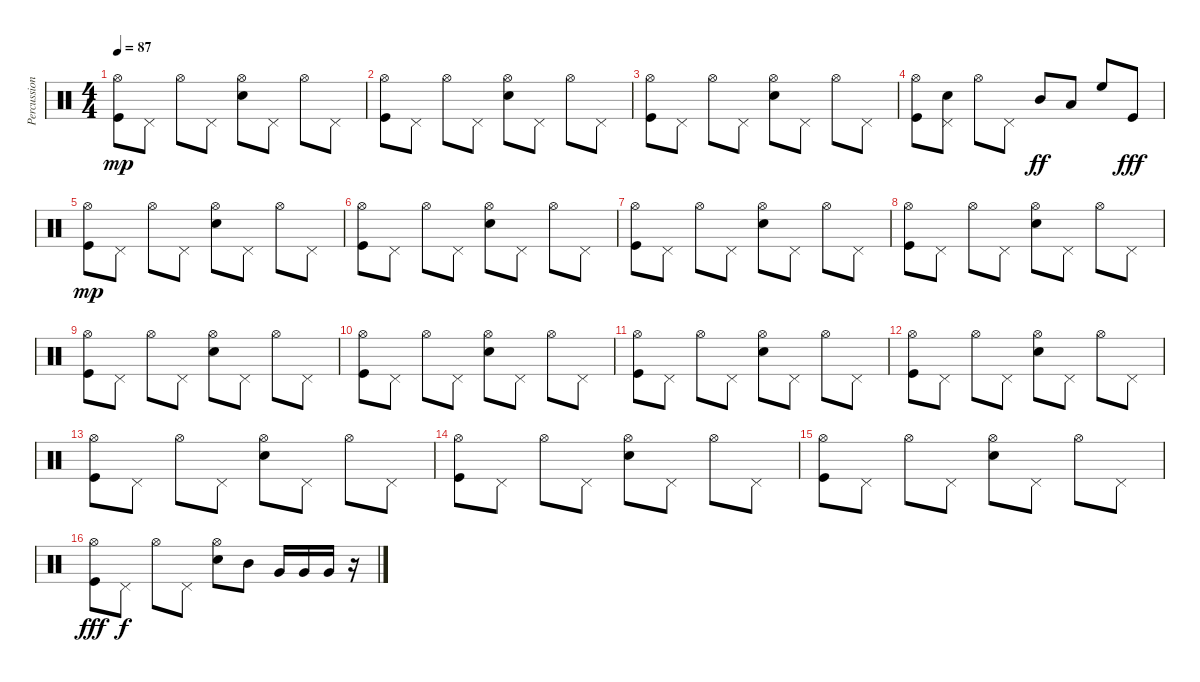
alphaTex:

\track ("Percussion" "Percussion") {instrument percussion}
\staff {score}
\articulation defaults
\ts (4 4)
\tempo 87
\clef neutral
\ks c
("Kick (hit)" "Hi-Hat (open)").8{dy mp} "Pedal Hi-Hat (hit)".8 "Hi-Hat (open)".8 "Pedal Hi-Hat (hit)".8 ("Snare (hit) 2" "Hi-Hat (open)").8 "Pedal Hi-Hat (hit)".8 "Hi-Hat (open)".8 "Pedal Hi-Hat (hit)".8 |
("Kick (hit)" "Hi-Hat (open)").8 "Pedal Hi-Hat (hit)".8 "Hi-Hat (open)".8 "Pedal Hi-Hat (hit)".8 ("Snare (hit) 2" "Hi-Hat (open)").8 "Pedal Hi-Hat (hit)".8 "Hi-Hat (open)".8 "Pedal Hi-Hat (hit)".8 |
("Kick (hit)" "Hi-Hat (open)").8 "Pedal Hi-Hat (hit)".8 "Hi-Hat (open)".8 "Pedal Hi-Hat (hit)".8 ("Snare (hit) 2" "Hi-Hat (open)").8 "Pedal Hi-Hat (hit)".8 "Hi-Hat (open)".8 "Pedal Hi-Hat (hit)".8 |
("Kick (hit)" "Hi-Hat (open)").8 ("Electric Snare (hit)" "Pedal Hi-Hat (hit)").8 "Hi-Hat (open)".8 "Pedal Hi-Hat (hit)".8 "Mid Tom (hit)".8{dy ff} "Low Tom (hit)".8 "High Floor Tom (hit)".8 "Kick (hit)".8{dy fff} |
("Kick (hit)" "Hi-Hat (open)").8{dy mp} "Pedal Hi-Hat (hit)".8 "Hi-Hat (open)".8 "Pedal Hi-Hat (hit)".8 ("Snare (hit) 2" "Hi-Hat (open)").8 "Pedal Hi-Hat (hit)".8 "Hi-Hat (open)".8 "Pedal Hi-Hat (hit)".8 |
("Kick (hit)" "Hi-Hat (open)").8 "Pedal Hi-Hat (hit)".8 "Hi-Hat (open)".8 "Pedal Hi-Hat (hit)".8 ("Snare (hit) 2" "Hi-Hat (open)").8 "Pedal Hi-Hat (hit)".8 "Hi-Hat (open)".8 "Pedal Hi-Hat (hit)".8 |
("Kick (hit)" "Hi-Hat (open)").8 "Pedal Hi-Hat (hit)".8 "Hi-Hat (open)".8 "Pedal Hi-Hat (hit)".8 ("Snare (hit) 2" "Hi-Hat (open)").8 "Pedal Hi-Hat (hit)".8 "Hi-Hat (open)".8 "Pedal Hi-Hat (hit)".8 |
("Kick (hit)" "Hi-Hat (open)").8 "Pedal Hi-Hat (hit)".8 "Hi-Hat (open)".8 "Pedal Hi-Hat (hit)".8 ("Snare (hit) 2" "Hi-Hat (open)").8 "Pedal Hi-Hat (hit)".8 "Hi-Hat (open)".8 "Pedal Hi-Hat (hit)".8 |
("Kick (hit)" "Hi-Hat (open)").8 "Pedal Hi-Hat (hit)".8 "Hi-Hat (open)".8 "Pedal Hi-Hat (hit)".8 ("Snare (hit) 2" "Hi-Hat (open)").8 "Pedal Hi-Hat (hit)".8 "Hi-Hat (open)".8 "Pedal Hi-Hat (hit)".8 |
("Kick (hit)" "Hi-Hat (open)").8 "Pedal Hi-Hat (hit)".8 "Hi-Hat (open)".8 "Pedal Hi-Hat (hit)".8 ("Snare (hit) 2" "Hi-Hat (open)").8 "Pedal Hi-Hat (hit)".8 "Hi-Hat (open)".8 "Pedal Hi-Hat (hit)".8 |
("Kick (hit)" "Hi-Hat (open)").8 "Pedal Hi-Hat (hit)".8 "Hi-Hat (open)".8 "Pedal Hi-Hat (hit)".8 ("Snare (hit) 2" "Hi-Hat (open)").8 "Pedal Hi-Hat (hit)".8 "Hi-Hat (open)".8 "Pedal Hi-Hat (hit)".8 |
("Kick (hit)" "Hi-Hat (open)").8 "Pedal Hi-Hat (hit)".8 "Hi-Hat (open)".8 "Pedal Hi-Hat (hit)".8 ("Snare (hit) 2" "Hi-Hat (open)").8 "Pedal Hi-Hat (hit)".8 "Hi-Hat (open)".8 "Pedal Hi-Hat (hit)".8 |
("Kick (hit)" "Hi-Hat (open)").8 "Pedal Hi-Hat (hit)".8 "Hi-Hat (open)".8 "Pedal Hi-Hat (hit)".8 ("Snare (hit) 2" "Hi-Hat (open)").8 "Pedal Hi-Hat (hit)".8 "Hi-Hat (open)".8 "Pedal Hi-Hat (hit)".8 |
("Kick (hit)" "Hi-Hat (open)").8 "Pedal Hi-Hat (hit)".8 "Hi-Hat (open)".8 "Pedal Hi-Hat (hit)".8 ("Snare (hit) 2" "Hi-Hat (open)").8 "Pedal Hi-Hat (hit)".8 "Hi-Hat (open)".8 "Pedal Hi-Hat (hit)".8 |
("Kick (hit)" "Hi-Hat (open)").8 "Pedal Hi-Hat (hit)".8 "Hi-Hat (open)".8 "Pedal Hi-Hat (hit)".8 ("Snare (hit) 2" "Hi-Hat (open)").8 "Pedal Hi-Hat (hit)".8 "Hi-Hat (open)".8 "Pedal Hi-Hat (hit)".8 |
("Kick (hit)" "Hi-Hat (open)").8{dy fff} "Pedal Hi-Hat (hit)".8{dy f} "Hi-Hat (open)".8 "Pedal Hi-Hat (hit)".8 ("Snare (hit) 2" "Hi-Hat (open)").8 "Mid Tom (hit)".8 "Very Low Tom (hit)".16 "Very Low Tom (hit)".16 "Very Low Tom (hit)".16 r.16
